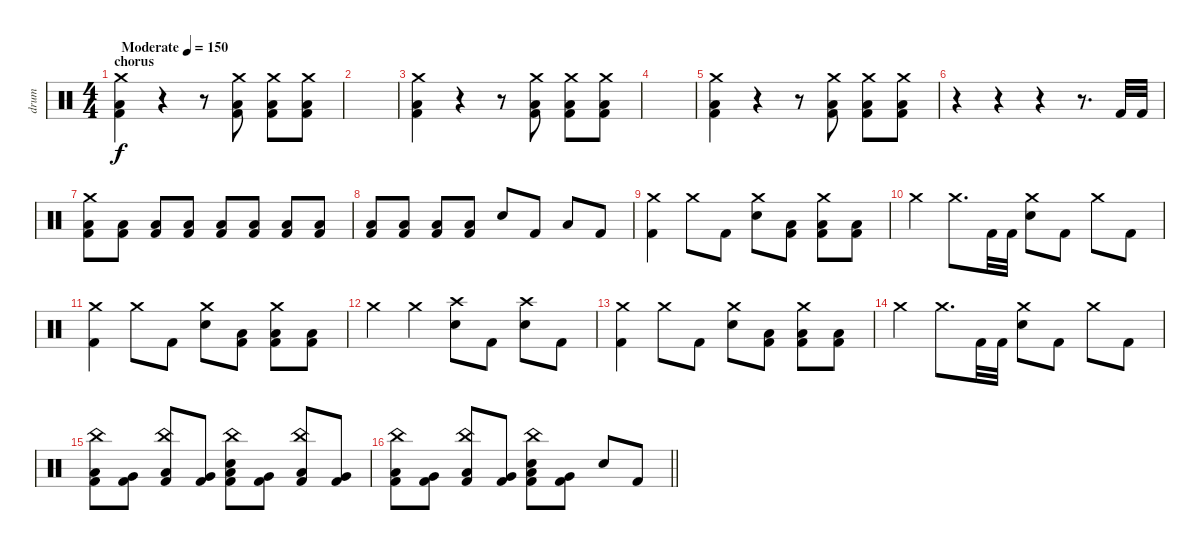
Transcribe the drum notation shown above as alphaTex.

\track ("drum" "drum") {instrument percussion}
\staff {score}
\articulation defaults
\ts (4 4)
\section ("" "chorus")
\tempo (150 "Moderate")
\clef neutral
\ks c
("Crash medium (hit)" "Low Floor Tom (hit)" "Kick (hit) 2").4{dy f} r.4 r.8 ("Crash medium (hit)" "Low Floor Tom (hit)" "Kick (hit) 2").8 ("Crash medium (hit)" "Low Floor Tom (hit)" "Kick (hit) 2").8 ("Crash medium (hit)" "Low Floor Tom (hit)" "Kick (hit) 2").8 |
|
("Crash medium (hit)" "Low Floor Tom (hit)" "Kick (hit) 2").4 r.4 r.8 ("Crash medium (hit)" "Low Floor Tom (hit)" "Kick (hit) 2").8 ("Crash medium (hit)" "Low Floor Tom (hit)" "Kick (hit) 2").8 ("Crash medium (hit)" "Low Floor Tom (hit)" "Kick (hit) 2").8 |
|
("Crash medium (hit)" "Low Floor Tom (hit)" "Kick (hit) 2").4 r.4 r.8 ("Crash medium (hit)" "Low Floor Tom (hit)" "Kick (hit) 2").8 ("Crash medium (hit)" "Low Floor Tom (hit)" "Kick (hit) 2").8 ("Crash medium (hit)" "Low Floor Tom (hit)" "Kick (hit) 2").8 |
r.4 r.4 r.4 r.8{d} "Kick (hit) 2".32 "Kick (hit) 2".32 |
("Crash medium (hit)" "Low Floor Tom (hit)" "Kick (hit) 2").8 ("Low Floor Tom (hit)" "Kick (hit) 2").8 ("Low Floor Tom (hit)" "Kick (hit) 2").8 ("Low Floor Tom (hit)" "Kick (hit) 2").8 ("Low Floor Tom (hit)" "Kick (hit) 2").8 ("Low Floor Tom (hit)" "Kick (hit) 2").8 ("Low Floor Tom (hit)" "Kick (hit) 2").8 ("Low Floor Tom (hit)" "Kick (hit) 2").8 |
("Low Floor Tom (hit)" "Kick (hit) 2").8 ("Low Floor Tom (hit)" "Kick (hit) 2").8 ("Low Floor Tom (hit)" "Kick (hit) 2").8 ("Low Floor Tom (hit)" "Kick (hit) 2").8 "Electric Snare (hit)".8 "Kick (hit) 2".8 "Low Floor Tom (hit)".8 "Kick (hit) 2".8 |
("Crash medium (hit)" "Kick (hit) 2").4 "Crash medium (hit)".8 "Kick (hit) 2".8 ("Crash medium (hit)" "Electric Snare (hit)").8 ("Low Floor Tom (hit)" "Kick (hit) 2").8 ("Crash medium (hit)" "Low Floor Tom (hit)" "Kick (hit) 2").8 ("Low Floor Tom (hit)" "Kick (hit) 2").8 |
"Crash medium (hit)".4 "Crash medium (hit)".8{d} "Kick (hit) 2".32 "Kick (hit) 2".32 ("Crash medium (hit)" "Electric Snare (hit)").8 "Kick (hit) 2".8 "Crash medium (hit)".8 "Kick (hit) 2".8 |
("Crash medium (hit)" "Kick (hit) 2").4 "Crash medium (hit)".8 "Kick (hit) 2".8 ("Crash medium (hit)" "Electric Snare (hit)").8 ("Low Floor Tom (hit)" "Kick (hit) 2").8 ("Crash medium (hit)" "Low Floor Tom (hit)" "Kick (hit) 2").8 ("Low Floor Tom (hit)" "Kick (hit) 2").8 |
"Crash medium (hit)".4 "Crash medium (hit)".4 ("Crash high (hit)" "Electric Snare (hit)").8 "Kick (hit) 2".8 ("Crash high (hit)" "Electric Snare (hit)").8 "Kick (hit) 2".8 |
("Crash medium (hit)" "Kick (hit) 2").4 "Crash medium (hit)".8 "Kick (hit) 2".8 ("Crash medium (hit)" "Electric Snare (hit)").8 ("Low Floor Tom (hit)" "Kick (hit) 2").8 ("Crash medium (hit)" "Low Floor Tom (hit)" "Kick (hit) 2").8 ("Low Floor Tom (hit)" "Kick (hit) 2").8 |
"Crash medium (hit)".4 "Crash medium (hit)".8{d} "Kick (hit) 2".32 "Kick (hit) 2".32 ("Crash medium (hit)" "Electric Snare (hit)").8 "Kick (hit) 2".8 "Crash medium (hit)".8 "Kick (hit) 2".8 |
("China (hit)" "Low Floor Tom (hit)" "Kick (hit) 2").8 ("Very Low Tom (hit)" "Kick (hit) 2").8 ("China (hit)" "Low Tom (hit)" "Kick (hit) 2").8 ("Very Low Tom (hit)" "Kick (hit) 2").8 ("China (hit)" "Low Floor Tom (hit)" "Electric Snare (hit)" "Kick (hit) 2").8 ("Very Low Tom (hit)" "Kick (hit) 2").8 ("China (hit)" "Low Tom (hit)" "Kick (hit) 2").8 ("Very Low Tom (hit)" "Kick (hit) 2").8 |
\barLineRight lightlight
("China (hit)" "Low Floor Tom (hit)" "Kick (hit) 2").8 ("Very Low Tom (hit)" "Kick (hit) 2").8 ("China (hit)" "Low Tom (hit)" "Kick (hit) 2").8 ("Very Low Tom (hit)" "Kick (hit) 2").8 ("China (hit)" "Low Floor Tom (hit)" "Electric Snare (hit)" "Kick (hit) 2").8 ("Very Low Tom (hit)" "Kick (hit) 2").8 "Electric Snare (hit)".8 "Kick (hit) 2".8
